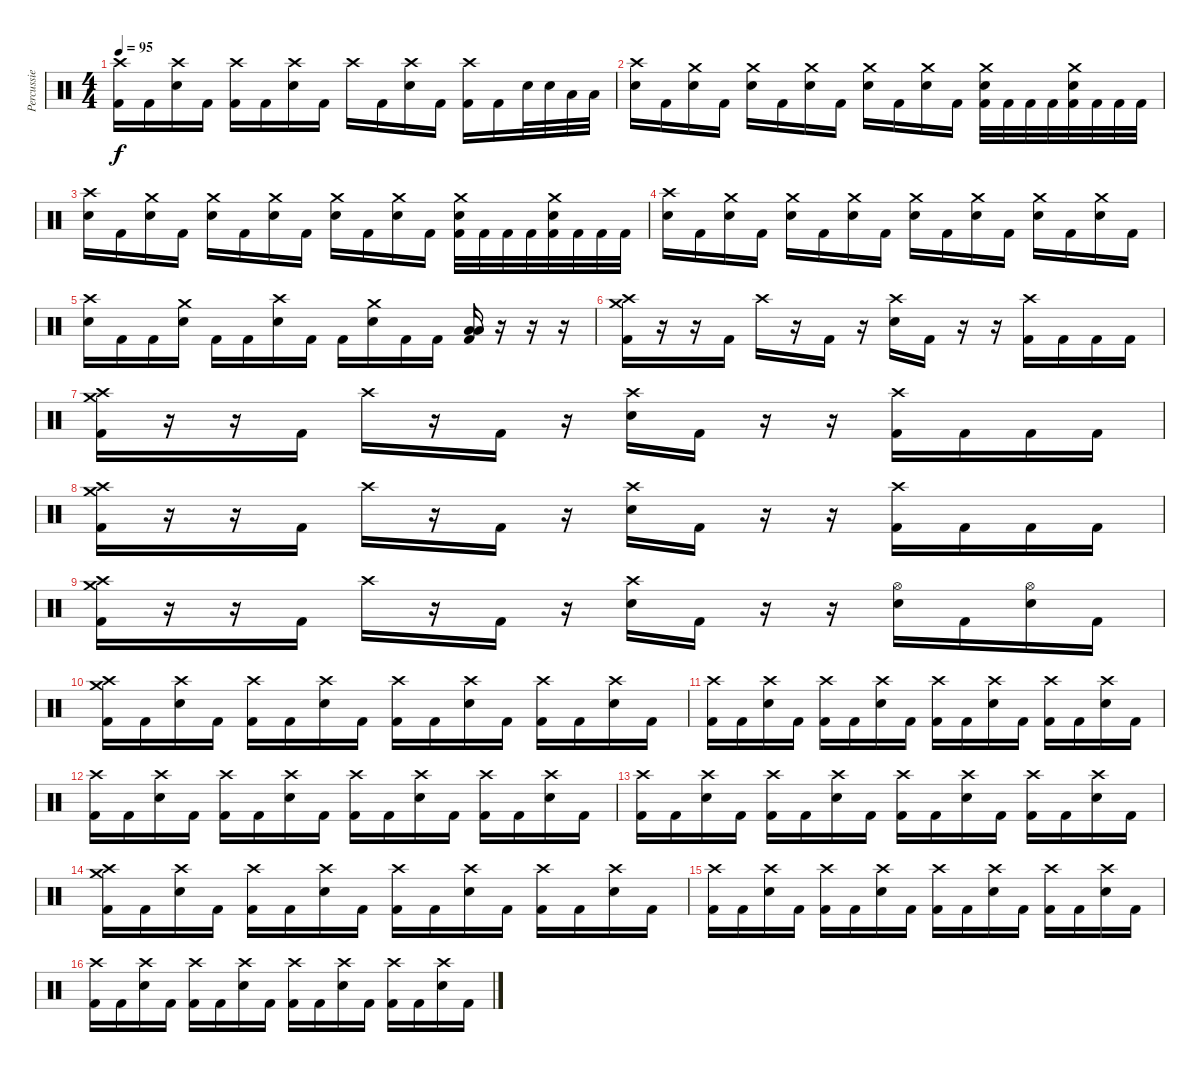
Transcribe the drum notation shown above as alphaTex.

\track ("Percussie" "Percussie") {instrument percussion}
\staff {score}
\articulation defaults
\ts (4 4)
\tempo 95
\clef neutral
\ks c
("Crash high (hit)" "Kick (hit) 2").16{dy f} "Kick (hit) 2".16 ("Crash high (hit)" "Electric Snare (hit)").16 "Kick (hit) 2".16 ("Crash high (hit)" "Kick (hit) 2").16 "Kick (hit) 2".16 ("Crash high (hit)" "Electric Snare (hit)").16 "Kick (hit) 2".16 "Crash high (hit)".16 "Kick (hit) 2".16 ("Crash high (hit)" "Electric Snare (hit)").16 "Kick (hit) 2".16 ("Crash high (hit)" "Kick (hit) 2").16 "Kick (hit) 2".16 "Electric Snare (hit)".32 "Electric Snare (hit)".32 "Low Tom (hit)".32 "Low Tom (hit)".32 |
("Crash high (hit)" "Electric Snare (hit)").16 "Kick (hit) 2".16 ("Crash medium (hit)" "Electric Snare (hit)").16 "Kick (hit) 2".16 ("Crash medium (hit)" "Electric Snare (hit)").16 "Kick (hit) 2".16 ("Crash medium (hit)" "Electric Snare (hit)").16 "Kick (hit) 2".16 ("Crash medium (hit)" "Electric Snare (hit)").16 "Kick (hit) 2".16 ("Crash medium (hit)" "Electric Snare (hit)").16 "Kick (hit) 2".16 ("Crash medium (hit)" "Electric Snare (hit)" "Kick (hit) 2").32 "Kick (hit) 2".32 "Kick (hit) 2".32 "Kick (hit) 2".32 ("Crash medium (hit)" "Electric Snare (hit)" "Kick (hit) 2").32 "Kick (hit) 2".32 "Kick (hit) 2".32 "Kick (hit) 2".32 |
("Crash high (hit)" "Electric Snare (hit)").16 "Kick (hit) 2".16 ("Crash medium (hit)" "Electric Snare (hit)").16 "Kick (hit) 2".16 ("Crash medium (hit)" "Electric Snare (hit)").16 "Kick (hit) 2".16 ("Crash medium (hit)" "Electric Snare (hit)").16 "Kick (hit) 2".16 ("Crash medium (hit)" "Electric Snare (hit)").16 "Kick (hit) 2".16 ("Crash medium (hit)" "Electric Snare (hit)").16 "Kick (hit) 2".16 ("Crash medium (hit)" "Electric Snare (hit)" "Kick (hit) 2").32 "Kick (hit) 2".32 "Kick (hit) 2".32 "Kick (hit) 2".32 ("Crash medium (hit)" "Electric Snare (hit)" "Kick (hit) 2").32 "Kick (hit) 2".32 "Kick (hit) 2".32 "Kick (hit) 2".32 |
("Crash high (hit)" "Electric Snare (hit)").16 "Kick (hit) 2".16 ("Crash medium (hit)" "Electric Snare (hit)").16 "Kick (hit) 2".16 ("Crash medium (hit)" "Electric Snare (hit)").16 "Kick (hit) 2".16 ("Crash medium (hit)" "Electric Snare (hit)").16 "Kick (hit) 2".16 ("Crash medium (hit)" "Electric Snare (hit)").16 "Kick (hit) 2".16 ("Crash medium (hit)" "Electric Snare (hit)").16 "Kick (hit) 2".16 ("Crash medium (hit)" "Electric Snare (hit)").16 "Kick (hit) 2".16 ("Crash medium (hit)" "Electric Snare (hit)").16 "Kick (hit) 2".16 |
("Crash high (hit)" "Electric Snare (hit)").16 "Kick (hit) 2".16 "Kick (hit) 2".16 ("Crash medium (hit)" "Electric Snare (hit)").16 "Kick (hit) 2".16 "Kick (hit) 2".16 ("Crash high (hit)" "Electric Snare (hit)").16 "Kick (hit) 2".16 "Kick (hit) 2".16 ("Crash medium (hit)" "Electric Snare (hit)").16 "Kick (hit) 2".16 "Kick (hit) 2".16 ("Low Tom (hit)" "Low Floor Tom (hit)" "Kick (hit) 2").16 r.16 r.16 r.16 |
("Crash medium (hit)" "Crash high (hit)" "Kick (hit) 2").16 r.16 r.16 "Kick (hit) 2".16 "Crash high (hit)".16 r.16 "Kick (hit) 2".16 r.16 ("Crash high (hit)" "Electric Snare (hit)").16 "Kick (hit) 2".16 r.16 r.16 ("Crash high (hit)" "Kick (hit) 2").16 "Kick (hit) 2".16 "Kick (hit) 2".16 "Kick (hit) 2".16 |
("Crash medium (hit)" "Crash high (hit)" "Kick (hit) 2").16 r.16 r.16 "Kick (hit) 2".16 "Crash high (hit)".16 r.16 "Kick (hit) 2".16 r.16 ("Crash high (hit)" "Electric Snare (hit)").16 "Kick (hit) 2".16 r.16 r.16 ("Crash high (hit)" "Kick (hit) 2").16 "Kick (hit) 2".16 "Kick (hit) 2".16 "Kick (hit) 2".16 |
("Crash medium (hit)" "Crash high (hit)" "Kick (hit) 2").16 r.16 r.16 "Kick (hit) 2".16 "Crash high (hit)".16 r.16 "Kick (hit) 2".16 r.16 ("Crash high (hit)" "Electric Snare (hit)").16 "Kick (hit) 2".16 r.16 r.16 ("Crash high (hit)" "Kick (hit) 2").16 "Kick (hit) 2".16 "Kick (hit) 2".16 "Kick (hit) 2".16 |
("Crash medium (hit)" "Crash high (hit)" "Kick (hit) 2").16 r.16 r.16 "Kick (hit) 2".16 "Crash high (hit)".16 r.16 "Kick (hit) 2".16 r.16 ("Crash high (hit)" "Electric Snare (hit)").16 "Kick (hit) 2".16 r.16 r.16 ("Hi-Hat (open)" "Electric Snare (hit)").16 "Kick (hit) 2".16 ("Hi-Hat (open)" "Electric Snare (hit)").16 "Kick (hit) 2".16 |
("Crash medium (hit)" "Crash high (hit)" "Kick (hit) 2").16 "Kick (hit) 2".16 ("Crash high (hit)" "Electric Snare (hit)").16 "Kick (hit) 2".16 ("Crash high (hit)" "Kick (hit) 2").16 "Kick (hit) 2".16 ("Crash high (hit)" "Electric Snare (hit)").16 "Kick (hit) 2".16 ("Crash high (hit)" "Kick (hit) 2").16 "Kick (hit) 2".16 ("Crash high (hit)" "Electric Snare (hit)").16 "Kick (hit) 2".16 ("Crash high (hit)" "Kick (hit) 2").16 "Kick (hit) 2".16 ("Crash high (hit)" "Electric Snare (hit)").16 "Kick (hit) 2".16 |
("Crash high (hit)" "Kick (hit) 2").16 "Kick (hit) 2".16 ("Crash high (hit)" "Electric Snare (hit)").16 "Kick (hit) 2".16 ("Crash high (hit)" "Kick (hit) 2").16 "Kick (hit) 2".16 ("Crash high (hit)" "Electric Snare (hit)").16 "Kick (hit) 2".16 ("Crash high (hit)" "Kick (hit) 2").16 "Kick (hit) 2".16 ("Crash high (hit)" "Electric Snare (hit)").16 "Kick (hit) 2".16 ("Crash high (hit)" "Kick (hit) 2").16 "Kick (hit) 2".16 ("Crash high (hit)" "Electric Snare (hit)").16 "Kick (hit) 2".16 |
("Crash high (hit)" "Kick (hit) 2").16 "Kick (hit) 2".16 ("Crash high (hit)" "Electric Snare (hit)").16 "Kick (hit) 2".16 ("Crash high (hit)" "Kick (hit) 2").16 "Kick (hit) 2".16 ("Crash high (hit)" "Electric Snare (hit)").16 "Kick (hit) 2".16 ("Crash high (hit)" "Kick (hit) 2").16 "Kick (hit) 2".16 ("Crash high (hit)" "Electric Snare (hit)").16 "Kick (hit) 2".16 ("Crash high (hit)" "Kick (hit) 2").16 "Kick (hit) 2".16 ("Crash high (hit)" "Electric Snare (hit)").16 "Kick (hit) 2".16 |
("Crash high (hit)" "Kick (hit) 2").16 "Kick (hit) 2".16 ("Crash high (hit)" "Electric Snare (hit)").16 "Kick (hit) 2".16 ("Crash high (hit)" "Kick (hit) 2").16 "Kick (hit) 2".16 ("Crash high (hit)" "Electric Snare (hit)").16 "Kick (hit) 2".16 ("Crash high (hit)" "Kick (hit) 2").16 "Kick (hit) 2".16 ("Crash high (hit)" "Electric Snare (hit)").16 "Kick (hit) 2".16 ("Crash high (hit)" "Kick (hit) 2").16 "Kick (hit) 2".16 ("Crash high (hit)" "Electric Snare (hit)").16 "Kick (hit) 2".16 |
("Crash medium (hit)" "Crash high (hit)" "Kick (hit) 2").16 "Kick (hit) 2".16 ("Crash high (hit)" "Electric Snare (hit)").16 "Kick (hit) 2".16 ("Crash high (hit)" "Kick (hit) 2").16 "Kick (hit) 2".16 ("Crash high (hit)" "Electric Snare (hit)").16 "Kick (hit) 2".16 ("Crash high (hit)" "Kick (hit) 2").16 "Kick (hit) 2".16 ("Crash high (hit)" "Electric Snare (hit)").16 "Kick (hit) 2".16 ("Crash high (hit)" "Kick (hit) 2").16 "Kick (hit) 2".16 ("Crash high (hit)" "Electric Snare (hit)").16 "Kick (hit) 2".16 |
("Crash high (hit)" "Kick (hit) 2").16 "Kick (hit) 2".16 ("Crash high (hit)" "Electric Snare (hit)").16 "Kick (hit) 2".16 ("Crash high (hit)" "Kick (hit) 2").16 "Kick (hit) 2".16 ("Crash high (hit)" "Electric Snare (hit)").16 "Kick (hit) 2".16 ("Crash high (hit)" "Kick (hit) 2").16 "Kick (hit) 2".16 ("Crash high (hit)" "Electric Snare (hit)").16 "Kick (hit) 2".16 ("Crash high (hit)" "Kick (hit) 2").16 "Kick (hit) 2".16 ("Crash high (hit)" "Electric Snare (hit)").16 "Kick (hit) 2".16 |
("Crash high (hit)" "Kick (hit) 2").16 "Kick (hit) 2".16 ("Crash high (hit)" "Electric Snare (hit)").16 "Kick (hit) 2".16 ("Crash high (hit)" "Kick (hit) 2").16 "Kick (hit) 2".16 ("Crash high (hit)" "Electric Snare (hit)").16 "Kick (hit) 2".16 ("Crash high (hit)" "Kick (hit) 2").16 "Kick (hit) 2".16 ("Crash high (hit)" "Electric Snare (hit)").16 "Kick (hit) 2".16 ("Crash high (hit)" "Kick (hit) 2").16 "Kick (hit) 2".16 ("Crash high (hit)" "Electric Snare (hit)").16 "Kick (hit) 2".16
